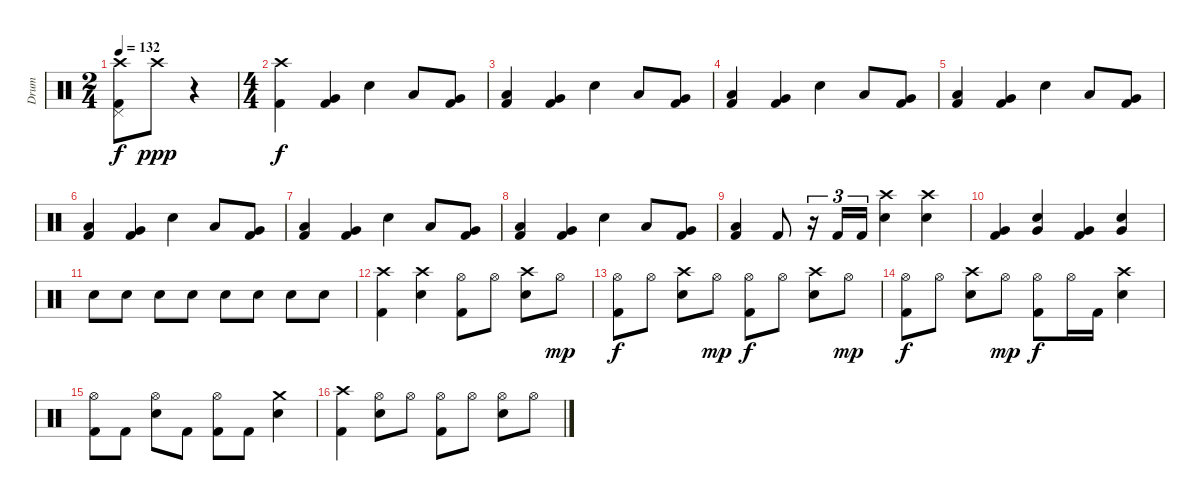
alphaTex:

\track ("Drum" "Drum") {instrument percussion}
\staff {score}
\articulation defaults
\ts (2 4)
\tempo 132
\clef neutral
\ks c
("Crash high (hit)" "Pedal Hi-Hat (hit)" "Kick (hit) 2").8{dy f} "Crash high (hit)".8{dy ppp} r.4 |
\ts (4 4)
("Crash high (hit)" "Kick (hit) 2").4{dy f} ("Very Low Tom (hit)" "Kick (hit) 2").4 "Snare (hit) 2".4 "Low Tom (hit)".8 ("Very Low Tom (hit)" "Kick (hit) 2").8 |
("Low Floor Tom (hit)" "Kick (hit) 2").4 ("Very Low Tom (hit)" "Kick (hit) 2").4 "Snare (hit) 2".4 "Low Tom (hit)".8 ("Very Low Tom (hit)" "Kick (hit) 2").8 |
("Low Floor Tom (hit)" "Kick (hit) 2").4 ("Very Low Tom (hit)" "Kick (hit) 2").4 "Snare (hit) 2".4 "Low Tom (hit)".8 ("Very Low Tom (hit)" "Kick (hit) 2").8 |
("Low Floor Tom (hit)" "Kick (hit) 2").4 ("Very Low Tom (hit)" "Kick (hit) 2").4 "Snare (hit) 2".4 "Low Tom (hit)".8 ("Very Low Tom (hit)" "Kick (hit) 2").8 |
("Low Floor Tom (hit)" "Kick (hit) 2").4 ("Very Low Tom (hit)" "Kick (hit) 2").4 "Snare (hit) 2".4 "Low Tom (hit)".8 ("Very Low Tom (hit)" "Kick (hit) 2").8 |
("Low Floor Tom (hit)" "Kick (hit) 2").4 ("Very Low Tom (hit)" "Kick (hit) 2").4 "Snare (hit) 2".4 "Low Tom (hit)".8 ("Very Low Tom (hit)" "Kick (hit) 2").8 |
("Low Floor Tom (hit)" "Kick (hit) 2").4 ("Very Low Tom (hit)" "Kick (hit) 2").4 "Snare (hit) 2".4 "Low Tom (hit)".8 ("Very Low Tom (hit)" "Kick (hit) 2").8 |
("Low Floor Tom (hit)" "Kick (hit) 2").4 "Kick (hit) 2".8 r.16{tu (3 2)} "Kick (hit) 2".16{tu (3 2)} "Kick (hit) 2".16{tu (3 2)} ("Crash high (hit)" "Snare (hit) 2").4 ("Crash high (hit)" "Snare (hit) 2").4 |
("Very Low Tom (hit)" "Kick (hit) 2").4 ("Very Low Tom (hit)" "Snare (hit) 2").4 ("Very Low Tom (hit)" "Kick (hit) 2").4 ("Very Low Tom (hit)" "Snare (hit) 2").4 |
"Snare (hit) 2".8 "Snare (hit) 2".8 "Snare (hit) 2".8 "Snare (hit) 2".8 "Snare (hit) 2".8 "Snare (hit) 2".8 "Snare (hit) 2".8 "Snare (hit) 2".8 |
("Crash high (hit)" "Kick (hit) 2").4 ("Crash high (hit)" "Snare (hit) 2").4 ("Hi-Hat (open)" "Kick (hit) 2").8 "Hi-Hat (open)".8 ("Crash high (hit)" "Snare (hit) 2").8 "Hi-Hat (open)".8{dy mp} |
("Hi-Hat (open)" "Kick (hit) 2").8{dy f} "Hi-Hat (open)".8 ("Crash high (hit)" "Snare (hit) 2").8 "Hi-Hat (open)".8{dy mp} ("Hi-Hat (open)" "Kick (hit) 2").8{dy f} "Hi-Hat (open)".8 ("Crash high (hit)" "Snare (hit) 2").8 "Hi-Hat (open)".8{dy mp} |
("Hi-Hat (open)" "Kick (hit) 2").8{dy f} "Hi-Hat (open)".8 ("Crash high (hit)" "Snare (hit) 2").8 "Hi-Hat (open)".8{dy mp} ("Hi-Hat (open)" "Kick (hit) 2").8{dy f} "Hi-Hat (open)".16 "Kick (hit) 2".16 ("Crash high (hit)" "Snare (hit) 2").4 |
("Hi-Hat (open)" "Kick (hit) 2").8 "Kick (hit) 2".8 ("Hi-Hat (open)" "Snare (hit) 2").8 "Kick (hit) 2".8 ("Hi-Hat (open)" "Kick (hit) 2").8 "Kick (hit) 2".8 ("Crash medium (hit)" "Snare (hit) 2").4 |
("Crash high (hit)" "Kick (hit) 2").4 ("Hi-Hat (open)" "Snare (hit) 2").8 "Hi-Hat (open)".8 ("Hi-Hat (open)" "Kick (hit) 2").8 "Hi-Hat (open)".8 ("Hi-Hat (open)" "Snare (hit) 2").8 "Hi-Hat (open)".8
